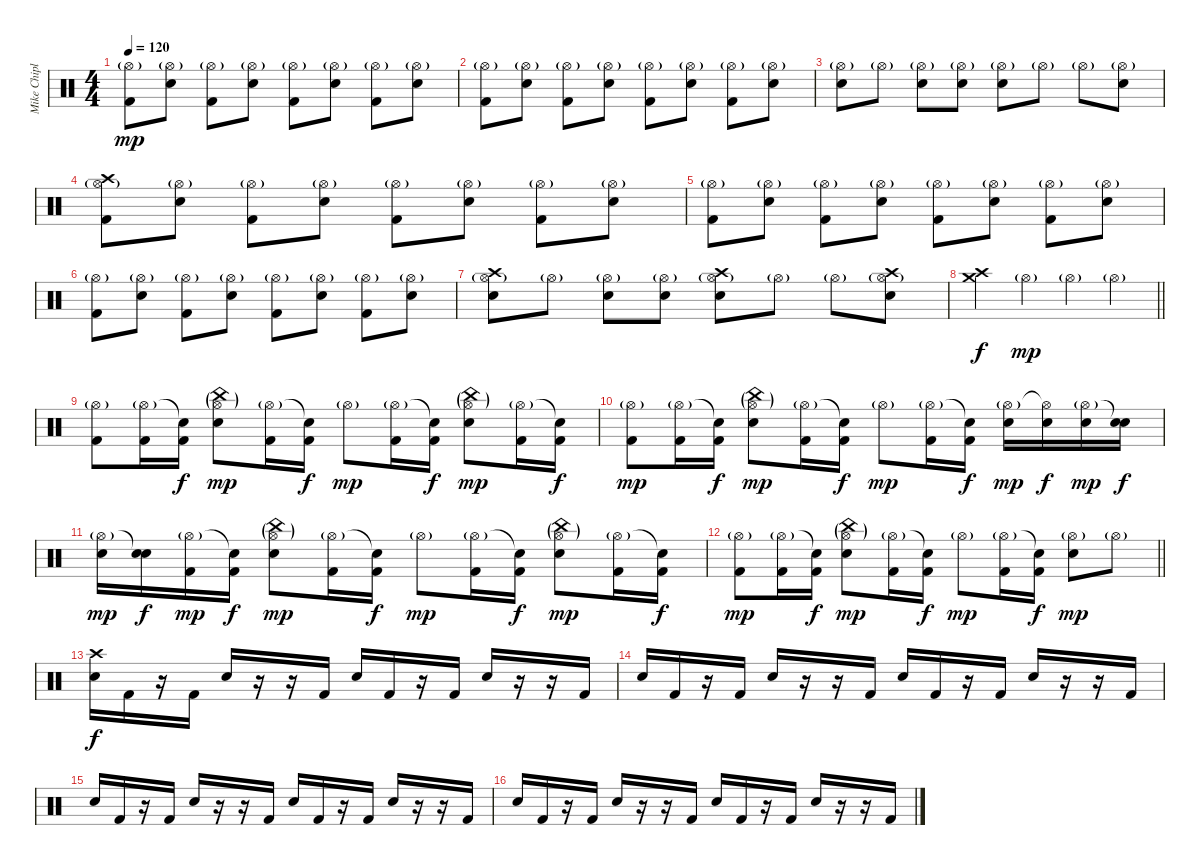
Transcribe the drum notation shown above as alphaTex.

\track ("Mike Chiplin" "Mike Chipl") {instrument percussion}
\staff {score}
\articulation defaults
\ts (4 4)
\tempo 120
\clef neutral
\ks c
("Hi-Hat (open)"{g} "Kick (hit) 2").8{dy mp} ("Hi-Hat (open)"{g} "Electric Snare (hit)").8 ("Hi-Hat (open)"{g} "Kick (hit) 2").8 ("Hi-Hat (open)"{g} "Electric Snare (hit)").8 ("Hi-Hat (open)"{g} "Kick (hit) 2").8 ("Hi-Hat (open)"{g} "Electric Snare (hit)").8 ("Hi-Hat (open)"{g} "Kick (hit) 2").8 ("Hi-Hat (open)"{g} "Electric Snare (hit)").8 |
("Hi-Hat (open)"{g} "Kick (hit) 2").8 ("Hi-Hat (open)"{g} "Electric Snare (hit)").8 ("Hi-Hat (open)"{g} "Kick (hit) 2").8 ("Hi-Hat (open)"{g} "Electric Snare (hit)").8 ("Hi-Hat (open)"{g} "Kick (hit) 2").8 ("Hi-Hat (open)"{g} "Electric Snare (hit)").8 ("Hi-Hat (open)"{g} "Kick (hit) 2").8 ("Hi-Hat (open)"{g} "Electric Snare (hit)").8 |
("Hi-Hat (open)"{g} "Electric Snare (hit)").8 "Hi-Hat (open)"{g}.8 ("Hi-Hat (open)"{g} "Electric Snare (hit)").8 ("Hi-Hat (open)"{g} "Electric Snare (hit)").8 ("Hi-Hat (open)"{g} "Electric Snare (hit)").8 "Hi-Hat (open)"{g}.8 "Hi-Hat (open)"{g}.8 ("Hi-Hat (open)"{g} "Electric Snare (hit)").8 |
("Crash high (hit)" "Hi-Hat (open)"{g} "Kick (hit) 2").8 ("Hi-Hat (open)"{g} "Electric Snare (hit)").8 ("Hi-Hat (open)"{g} "Kick (hit) 2").8 ("Hi-Hat (open)"{g} "Electric Snare (hit)").8 ("Hi-Hat (open)"{g} "Kick (hit) 2").8 ("Hi-Hat (open)"{g} "Electric Snare (hit)").8 ("Hi-Hat (open)"{g} "Kick (hit) 2").8 ("Hi-Hat (open)"{g} "Electric Snare (hit)").8 |
("Hi-Hat (open)"{g} "Kick (hit) 2").8 ("Hi-Hat (open)"{g} "Electric Snare (hit)").8 ("Hi-Hat (open)"{g} "Kick (hit) 2").8 ("Hi-Hat (open)"{g} "Electric Snare (hit)").8 ("Hi-Hat (open)"{g} "Kick (hit) 2").8 ("Hi-Hat (open)"{g} "Electric Snare (hit)").8 ("Hi-Hat (open)"{g} "Kick (hit) 2").8 ("Hi-Hat (open)"{g} "Electric Snare (hit)").8 |
("Hi-Hat (open)"{g} "Kick (hit) 2").8 ("Hi-Hat (open)"{g} "Electric Snare (hit)").8 ("Hi-Hat (open)"{g} "Kick (hit) 2").8 ("Hi-Hat (open)"{g} "Electric Snare (hit)").8 ("Hi-Hat (open)"{g} "Kick (hit) 2").8 ("Hi-Hat (open)"{g} "Electric Snare (hit)").8 ("Hi-Hat (open)"{g} "Kick (hit) 2").8 ("Hi-Hat (open)"{g} "Electric Snare (hit)").8 |
("Crash high (hit)" "Hi-Hat (open)"{g} "Electric Snare (hit)").8 "Hi-Hat (open)"{g}.8 ("Hi-Hat (open)"{g} "Electric Snare (hit)").8 ("Hi-Hat (open)"{g} "Electric Snare (hit)").8 ("Crash high (hit)" "Hi-Hat (open)"{g} "Electric Snare (hit)").8 "Hi-Hat (open)"{g}.8 "Hi-Hat (open)"{g}.8 ("Crash high (hit)" "Hi-Hat (open)"{g} "Electric Snare (hit)").8 |
\barLineRight lightlight
("Crash high (hit)" "Crash medium (hit)").4{dy f} "Hi-Hat (open)"{g}.4{dy mp} "Hi-Hat (open)"{g}.4 "Hi-Hat (open)"{g}.4 |
("Hi-Hat (open)"{g} "Kick (hit) 2").8 ("Hi-Hat (open)"{g} "Kick (hit) 2").16 ("Snare (hit)"{t} "Kick (hit) 2").16{dy f} ("China (hit)"{g} "Hi-Hat (open)"{g} "Electric Snare (hit)").8{dy mp} ("Hi-Hat (open)"{g} "Kick (hit) 2").16 ("Snare (hit)"{t} "Kick (hit) 2").16{dy f} "Hi-Hat (open)"{g}.8{dy mp} ("Hi-Hat (open)"{g} "Kick (hit) 2").16 ("Snare (hit)"{t} "Kick (hit) 2").16{dy f} ("China (hit)"{g} "Hi-Hat (open)"{g} "Electric Snare (hit)").8{dy mp} ("Hi-Hat (open)"{g} "Kick (hit) 2").16 ("Snare (hit)"{t} "Kick (hit) 2").16{dy f} |
("Hi-Hat (open)"{g} "Kick (hit) 2").8{dy mp} ("Hi-Hat (open)"{g} "Kick (hit) 2").16 ("Snare (hit)"{t} "Kick (hit) 2").16{dy f} ("China (hit)"{g} "Hi-Hat (open)"{g} "Electric Snare (hit)").8{dy mp} ("Hi-Hat (open)"{g} "Kick (hit) 2").16 ("Snare (hit)"{t} "Kick (hit) 2").16{dy f} "Hi-Hat (open)"{g}.8{dy mp} ("Hi-Hat (open)"{g} "Kick (hit) 2").16 ("Snare (hit)"{t} "Kick (hit) 2").16{dy f} ("Hi-Hat (open)"{g} "Electric Snare (hit)").16{dy mp} ("Hi-Hat (open)"{t} "Electric Snare (hit)").16{dy f} ("Hi-Hat (open)"{g} "Electric Snare (hit)").16{dy mp} ("Snare (hit)"{t} "Electric Snare (hit)").16{dy f} |
("Hi-Hat (open)"{g} "Electric Snare (hit)").16{dy mp} ("Snare (hit)"{t} "Electric Snare (hit)").16{dy f} ("Hi-Hat (open)"{g} "Kick (hit) 2").16{dy mp} ("Snare (hit)"{t} "Kick (hit) 2").16{dy f} ("China (hit)"{g} "Hi-Hat (open)"{g} "Electric Snare (hit)").8{dy mp} ("Hi-Hat (open)"{g} "Kick (hit) 2").16 ("Snare (hit)"{t} "Kick (hit) 2").16{dy f} "Hi-Hat (open)"{g}.8{dy mp} ("Hi-Hat (open)"{g} "Kick (hit) 2").16 ("Snare (hit)"{t} "Kick (hit) 2").16{dy f} ("China (hit)"{g} "Hi-Hat (open)"{g} "Electric Snare (hit)").8{dy mp} ("Hi-Hat (open)"{g} "Kick (hit) 2").16 ("Snare (hit)"{t} "Kick (hit) 2").16{dy f} |
\barLineRight lightlight
("Hi-Hat (open)"{g} "Kick (hit) 2").8{dy mp} ("Hi-Hat (open)"{g} "Kick (hit) 2").16 ("Snare (hit)"{t} "Kick (hit) 2").16{dy f} ("China (hit)"{g} "Hi-Hat (open)"{g} "Electric Snare (hit)").8{dy mp} ("Hi-Hat (open)"{g} "Kick (hit) 2").16 ("Snare (hit)"{t} "Kick (hit) 2").16{dy f} "Hi-Hat (open)"{g}.8{dy mp} ("Hi-Hat (open)"{g} "Kick (hit) 2").16 ("Snare (hit)"{t} "Kick (hit) 2").16{dy f} ("Hi-Hat (open)"{g} "Electric Snare (hit)").8{dy mp} "Hi-Hat (open)"{g}.8 |
("Crash high (hit)" "Electric Snare (hit)").16{dy f} "Kick (hit) 2".16 r.16 "Kick (hit) 2".16 "Electric Snare (hit)".16 r.16 r.16 "Kick (hit) 2".16 "Electric Snare (hit)".16 "Kick (hit) 2".16 r.16 "Kick (hit) 2".16 "Electric Snare (hit)".16 r.16 r.16 "Kick (hit) 2".16 |
"Electric Snare (hit)".16 "Kick (hit) 2".16 r.16 "Kick (hit) 2".16 "Electric Snare (hit)".16 r.16 r.16 "Kick (hit) 2".16 "Electric Snare (hit)".16 "Kick (hit) 2".16 r.16 "Kick (hit) 2".16 "Electric Snare (hit)".16 r.16 r.16 "Kick (hit) 2".16 |
"Electric Snare (hit)".16 "Kick (hit) 2".16 r.16 "Kick (hit) 2".16 "Electric Snare (hit)".16 r.16 r.16 "Kick (hit) 2".16 "Electric Snare (hit)".16 "Kick (hit) 2".16 r.16 "Kick (hit) 2".16 "Electric Snare (hit)".16 r.16 r.16 "Kick (hit) 2".16 |
"Electric Snare (hit)".16 "Kick (hit) 2".16 r.16 "Kick (hit) 2".16 "Electric Snare (hit)".16 r.16 r.16 "Kick (hit) 2".16 "Electric Snare (hit)".16 "Kick (hit) 2".16 r.16 "Kick (hit) 2".16 "Electric Snare (hit)".16 r.16 r.16 "Kick (hit) 2".16
